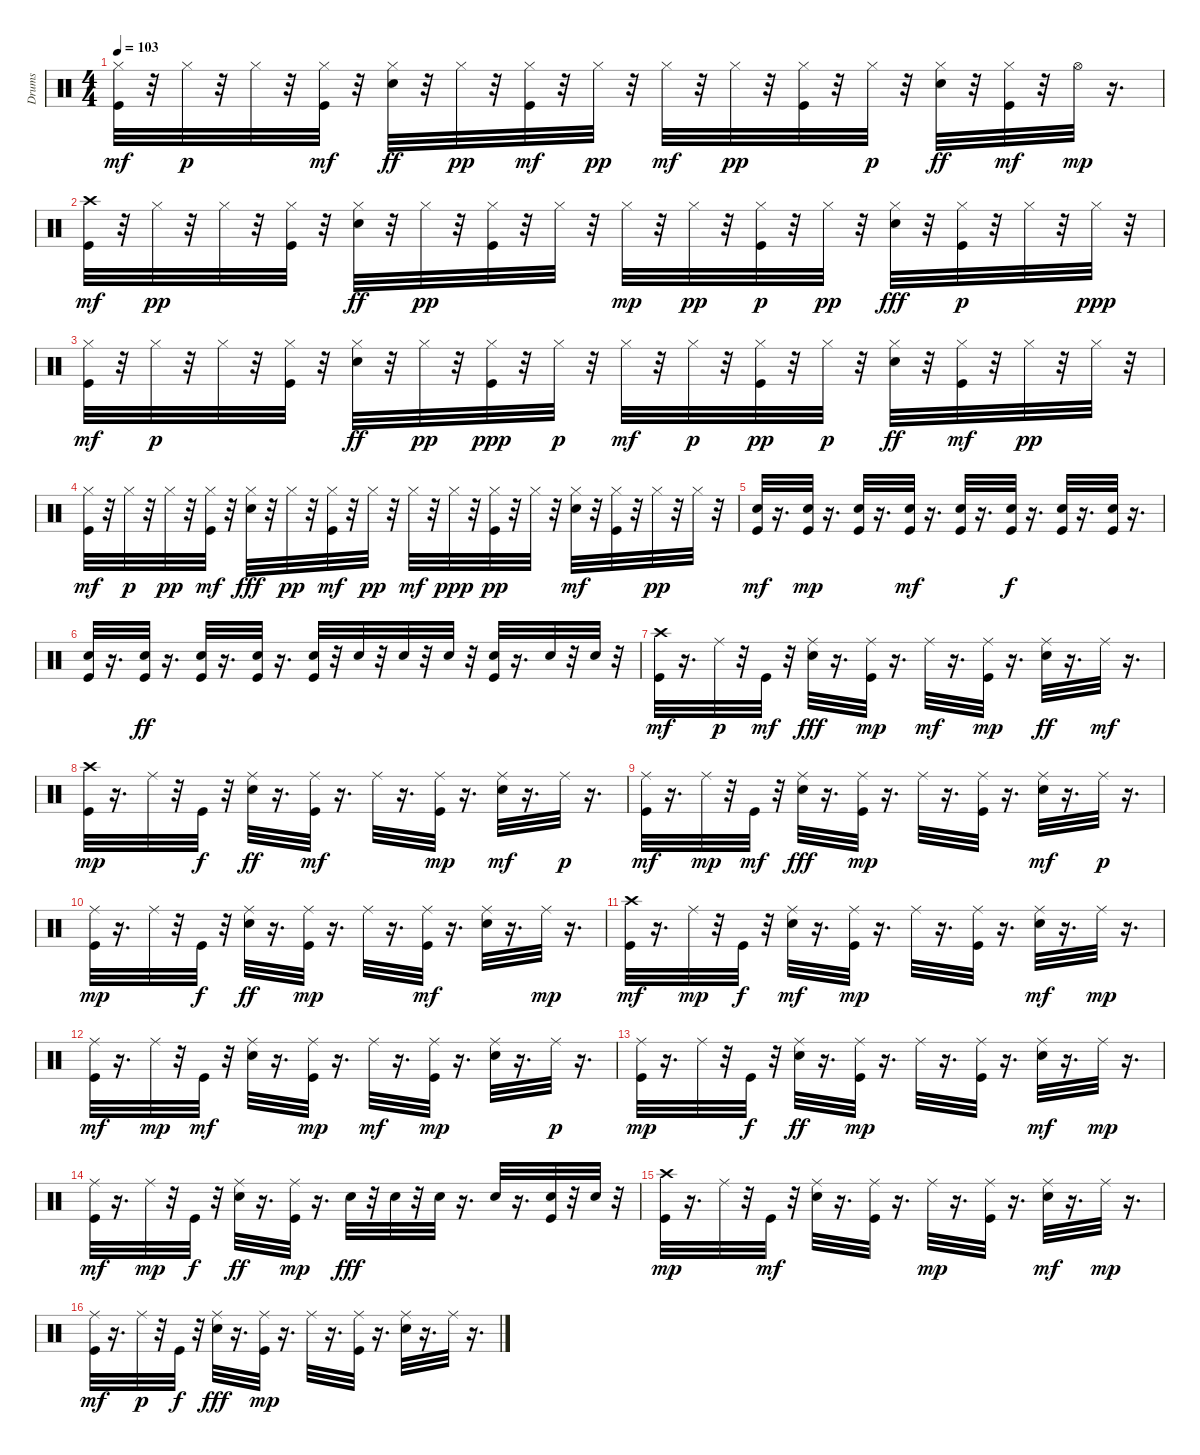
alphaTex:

\track ("Drums" "Drums") {instrument percussion}
\staff {score}
\articulation defaults
\ts (4 4)
\tempo 103
\clef neutral
\ks c
("Hi-Hat (closed)" "Kick (hit)").32{dy mf} r.32 "Hi-Hat (closed)".32{dy p} r.32 "Hi-Hat (closed)".32 r.32 ("Hi-Hat (closed)" "Kick (hit)").32{dy mf} r.32 ("Hi-Hat (closed)" "Snare (hit) 2").32{dy ff} r.32 "Hi-Hat (closed)".32{dy pp} r.32 ("Hi-Hat (closed)" "Kick (hit)").32{dy mf} r.32 "Hi-Hat (closed)".32{dy pp} r.32 "Hi-Hat (closed)".32{dy mf} r.32 "Hi-Hat (closed)".32{dy pp} r.32 ("Kick (hit)" "Hi-Hat (closed)").32 r.32 "Hi-Hat (closed)".32{dy p} r.32 ("Hi-Hat (closed)" "Snare (hit) 2").32{dy ff} r.32 ("Hi-Hat (closed)" "Kick (hit)").32{dy mf} r.32 "Hi-Hat (open)".32{dy mp} r.16{d} |
("Crash high (hit)" "Kick (hit)").32{dy mf} r.32 "Hi-Hat (closed)".32{dy pp} r.32 "Hi-Hat (closed)".32 r.32 ("Hi-Hat (closed)" "Kick (hit)").32 r.32 ("Hi-Hat (closed)" "Snare (hit) 2").32{dy ff} r.32 "Hi-Hat (closed)".32{dy pp} r.32 ("Hi-Hat (closed)" "Kick (hit)").32 r.32 "Hi-Hat (closed)".32 r.32 "Hi-Hat (closed)".32{dy mp} r.32 "Hi-Hat (closed)".32{dy pp} r.32 ("Hi-Hat (closed)" "Kick (hit)").32{dy p} r.32 "Hi-Hat (closed)".32{dy pp} r.32 ("Hi-Hat (closed)" "Snare (hit) 2").32{dy fff} r.32 ("Hi-Hat (closed)" "Kick (hit)").32{dy p} r.32 "Hi-Hat (closed)".32 r.32 "Hi-Hat (closed)".32{dy ppp} r.32 |
("Kick (hit)" "Hi-Hat (closed)").32{dy mf} r.32 "Hi-Hat (closed)".32{dy p} r.32 "Hi-Hat (closed)".32 r.32 ("Kick (hit)" "Hi-Hat (closed)").32 r.32 ("Hi-Hat (closed)" "Snare (hit) 2").32{dy ff} r.32 "Hi-Hat (closed)".32{dy pp} r.32 ("Hi-Hat (closed)" "Kick (hit)").32{dy ppp} r.32 "Hi-Hat (closed)".32{dy p} r.32 "Hi-Hat (closed)".32{dy mf} r.32 "Hi-Hat (closed)".32{dy p} r.32 ("Kick (hit)" "Hi-Hat (closed)").32{dy pp} r.32 "Hi-Hat (closed)".32{dy p} r.32 ("Hi-Hat (closed)" "Snare (hit) 2").32{dy ff} r.32 ("Hi-Hat (closed)" "Kick (hit)").32{dy mf} r.32 "Hi-Hat (closed)".32{dy pp} r.32 "Hi-Hat (closed)".32 r.32 |
("Hi-Hat (closed)" "Kick (hit)").32{dy mf} r.32 "Hi-Hat (closed)".32{dy p} r.32 "Hi-Hat (closed)".32{dy pp} r.32 ("Hi-Hat (closed)" "Kick (hit)").32{dy mf} r.32 ("Hi-Hat (closed)" "Snare (hit) 2").32{dy fff} r.32 "Hi-Hat (closed)".32{dy pp} r.32 ("Hi-Hat (closed)" "Kick (hit)").32{dy mf} r.32 "Hi-Hat (closed)".32{dy pp} r.32 "Hi-Hat (closed)".32{dy mf} r.32 "Hi-Hat (closed)".32{dy ppp} r.32 ("Kick (hit)" "Hi-Hat (closed)").32{dy pp} r.32 "Hi-Hat (closed)".32 r.32 ("Snare (hit) 2" "Hi-Hat (closed)").32{dy mf} r.32 ("Hi-Hat (closed)" "Kick (hit)").32 r.32 "Hi-Hat (closed)".32{dy pp} r.32 "Hi-Hat (closed)".32 r.32 |
("Snare (hit) 2" "Kick (hit)").32{dy mf} r.16{d} ("Snare (hit) 2" "Kick (hit)").32{dy mp} r.16{d} ("Snare (hit) 2" "Kick (hit)").32 r.16{d} ("Snare (hit) 2" "Kick (hit)").32{dy mf} r.16{d} ("Snare (hit) 2" "Kick (hit)").32 r.16{d} ("Snare (hit) 2" "Kick (hit)").32{dy f} r.16{d} ("Kick (hit)" "Snare (hit) 2").32 r.16{d} ("Snare (hit) 2" "Kick (hit)").32 r.16{d} |
("Snare (hit) 2" "Kick (hit)").32 r.16{d} ("Snare (hit) 2" "Kick (hit)").32{dy ff} r.16{d} ("Snare (hit) 2" "Kick (hit)").32 r.16{d} ("Snare (hit) 2" "Kick (hit)").32 r.16{d} ("Snare (hit) 2" "Kick (hit)").32 r.32 "Snare (hit) 2".32 r.32 "Snare (hit) 2".32 r.32 "Snare (hit) 2".32 r.32 ("Snare (hit) 2" "Kick (hit)").32 r.16{d} "Snare (hit) 2".32 r.32 "Snare (hit) 2".32 r.32 |
("Kick (hit)" "Crash high (hit)").32{dy mf} r.16{d} "Ride (middle)".32{dy p} r.32 "Kick (hit)".32{dy mf} r.32 ("Ride (middle)" "Snare (hit) 2").32{dy fff} r.16{d} ("Kick (hit)" "Ride (middle)").32{dy mp} r.16{d} "Ride (middle)".32{dy mf} r.16{d} ("Kick (hit)" "Ride (middle)").32{dy mp} r.16{d} ("Snare (hit) 2" "Ride (middle)").32{dy ff} r.16{d} "Ride (middle)".32{dy mf} r.16{d} |
("Crash high (hit)" "Kick (hit)").32{dy mp} r.16{d} "Ride (middle)".32 r.32 "Kick (hit)".32{dy f} r.32 ("Ride (middle)" "Snare (hit) 2").32{dy ff} r.16{d} ("Ride (middle)" "Kick (hit)").32{dy mf} r.16{d} "Ride (middle)".32 r.16{d} ("Kick (hit)" "Ride (middle)").32{dy mp} r.16{d} ("Snare (hit) 2" "Ride (middle)").32{dy mf} r.16{d} "Ride (middle)".32{dy p} r.16{d} |
("Ride (middle)" "Kick (hit)").32{dy mf} r.16{d} "Ride (middle)".32{dy mp} r.32 "Kick (hit)".32{dy mf} r.32 ("Ride (middle)" "Snare (hit) 2").32{dy fff} r.16{d} ("Kick (hit)" "Ride (middle)").32{dy mp} r.16{d} "Ride (middle)".32 r.16{d} ("Kick (hit)" "Ride (middle)").32 r.16{d} ("Snare (hit) 2" "Ride (middle)").32{dy mf} r.16{d} "Ride (middle)".32{dy p} r.16{d} |
("Kick (hit)" "Ride (middle)").32{dy mp} r.16{d} "Ride (middle)".32 r.32 "Kick (hit)".32{dy f} r.32 ("Ride (middle)" "Snare (hit) 2").32{dy ff} r.16{d} ("Ride (middle)" "Kick (hit)").32{dy mp} r.16{d} "Ride (middle)".32 r.16{d} ("Ride (middle)" "Kick (hit)").32{dy mf} r.16{d} ("Snare (hit) 2" "Ride (middle)").32 r.16{d} "Ride (middle)".32{dy mp} r.16{d} |
("Kick (hit)" "Crash high (hit)").32{dy mf} r.16{d} "Ride (middle)".32{dy mp} r.32 "Kick (hit)".32{dy f} r.32 ("Snare (hit) 2" "Ride (middle)").32{dy mf} r.16{d} ("Ride (middle)" "Kick (hit)").32{dy mp} r.16{d} "Ride (middle)".32 r.16{d} ("Kick (hit)" "Ride (middle)").32 r.16{d} ("Snare (hit) 2" "Ride (middle)").32{dy mf} r.16{d} "Ride (middle)".32{dy mp} r.16{d} |
("Kick (hit)" "Ride (middle)").32{dy mf} r.16{d} "Ride (middle)".32{dy mp} r.32 "Kick (hit)".32{dy mf} r.32 ("Snare (hit) 2" "Ride (middle)").32 r.16{d} ("Kick (hit)" "Ride (middle)").32{dy mp} r.16{d} "Ride (middle)".32{dy mf} r.16{d} ("Kick (hit)" "Ride (middle)").32{dy mp} r.16{d} ("Snare (hit) 2" "Ride (middle)").32 r.16{d} "Ride (middle)".32{dy p} r.16{d} |
("Kick (hit)" "Ride (middle)").32{dy mp} r.16{d} "Ride (middle)".32 r.32 "Kick (hit)".32{dy f} r.32 ("Ride (middle)" "Snare (hit) 2").32{dy ff} r.16{d} ("Kick (hit)" "Ride (middle)").32{dy mp} r.16{d} "Ride (middle)".32 r.16{d} ("Kick (hit)" "Ride (middle)").32 r.16{d} ("Snare (hit) 2" "Ride (middle)").32{dy mf} r.16{d} "Ride (middle)".32{dy mp} r.16{d} |
("Ride (middle)" "Kick (hit)").32{dy mf} r.16{d} "Ride (middle)".32{dy mp} r.32 "Kick (hit)".32{dy f} r.32 ("Ride (middle)" "Snare (hit) 2").32{dy ff} r.16{d} ("Ride (middle)" "Kick (hit)").32{dy mp} r.16{d} "Snare (hit) 2".32{dy fff} r.32 "Snare (hit) 2".32 r.32 "Snare (hit) 2".32 r.16{d} "Snare (hit) 2".32 r.16{d} ("Snare (hit) 2" "Kick (hit)").32 r.32 "Snare (hit) 2".32 r.32 |
("Kick (hit)" "Crash high (hit)").32{dy mp} r.16{d} "Ride (middle)".32 r.32 "Kick (hit)".32{dy mf} r.32 ("Snare (hit) 2" "Ride (middle)").32 r.16{d} ("Ride (middle)" "Kick (hit)").32 r.16{d} "Ride (middle)".32{dy mp} r.16{d} ("Kick (hit)" "Ride (middle)").32 r.16{d} ("Snare (hit) 2" "Ride (middle)").32{dy mf} r.16{d} "Ride (middle)".32{dy mp} r.16{d} |
("Kick (hit)" "Ride (middle)").32{dy mf} r.16{d} "Ride (middle)".32{dy p} r.32 "Kick (hit)".32{dy f} r.32 ("Ride (middle)" "Snare (hit) 2").32{dy fff} r.16{d} ("Ride (middle)" "Kick (hit)").32{dy mp} r.16{d} "Ride (middle)".32 r.16{d} ("Kick (hit)" "Ride (middle)").32 r.16{d} ("Snare (hit) 2" "Ride (middle)").32 r.16{d} "Ride (middle)".32 r.16{d}
